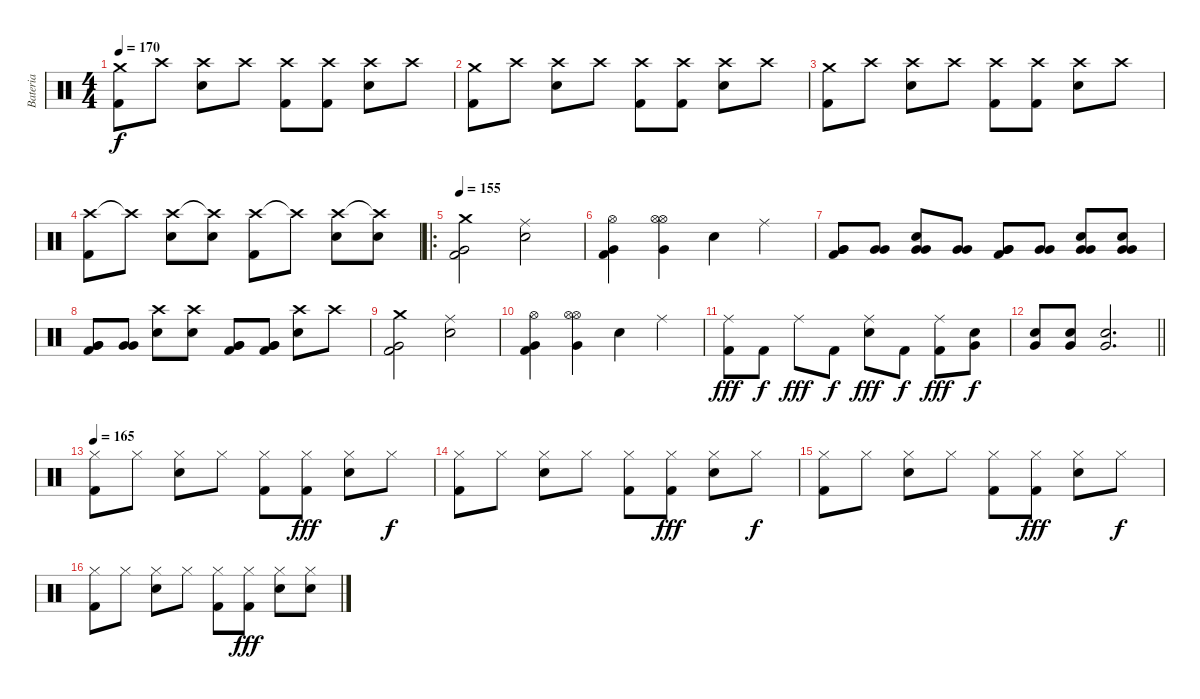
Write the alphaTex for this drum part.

\track ("Bateria" "Bateria") {instrument percussion}
\staff {score}
\articulation defaults
\ts (4 4)
\tempo 170
\clef neutral
\ks c
("Crash medium (hit)" "Kick (hit) 2").8{dy f} "Crash high (hit)".8 ("Crash high (hit)" "Electric Snare (hit)").8 "Crash high (hit)".8 ("Crash high (hit)" "Kick (hit) 2").8 ("Crash high (hit)" "Kick (hit) 2").8 ("Crash high (hit)" "Electric Snare (hit)").8 "Crash high (hit)".8 |
("Crash medium (hit)" "Kick (hit) 2").8 "Crash high (hit)".8 ("Crash high (hit)" "Electric Snare (hit)").8 "Crash high (hit)".8 ("Crash high (hit)" "Kick (hit) 2").8 ("Crash high (hit)" "Kick (hit) 2").8 ("Crash high (hit)" "Electric Snare (hit)").8 "Crash high (hit)".8 |
("Crash medium (hit)" "Kick (hit) 2").8 "Crash high (hit)".8 ("Crash high (hit)" "Electric Snare (hit)").8 "Crash high (hit)".8 ("Crash high (hit)" "Kick (hit) 2").8 ("Crash high (hit)" "Kick (hit) 2").8 ("Crash high (hit)" "Electric Snare (hit)").8 "Crash high (hit)".8 |
("Crash high (hit)" "Kick (hit) 2").8 "Crash high (hit)"{t}.8 ("Crash high (hit)" "Electric Snare (hit)").8 ("Crash high (hit)"{t} "Electric Snare (hit)").8 ("Crash high (hit)" "Kick (hit) 2").8 "Crash high (hit)"{t}.8 ("Crash high (hit)" "Electric Snare (hit)").8 ("Crash high (hit)"{t} "Electric Snare (hit)").8 |
\ro
\tempo 155
("Crash medium (hit)" "Very Low Tom (hit)" "Kick (hit) 2").2 ("Ride (middle)" "Electric Snare (hit)").2 |
("Hi-Hat (open)" "Very Low Tom (hit)" "Kick (hit) 2").4 ("Hi-Hat (open)" "Very Low Tom (hit)" "Hi-Hat (open)").4 "Electric Snare (hit)".4 "Ride (middle)".4 |
("Very Low Tom (hit)" "Very Low Tom (hit)" "Kick (hit) 2").8 ("Very Low Tom (hit)" "Very Low Tom (hit)").8 ("Very Low Tom (hit)" "Very Low Tom (hit)" "Electric Snare (hit)").8 ("Very Low Tom (hit)" "Very Low Tom (hit)").8 ("Very Low Tom (hit)" "Very Low Tom (hit)" "Kick (hit) 2").8 ("Very Low Tom (hit)" "Very Low Tom (hit)").8 ("Very Low Tom (hit)" "Very Low Tom (hit)" "Electric Snare (hit)").8 ("Very Low Tom (hit)" "Very Low Tom (hit)" "Electric Snare (hit)").8 |
("Very Low Tom (hit)" "Very Low Tom (hit)" "Kick (hit) 2").8 ("Very Low Tom (hit)" "Very Low Tom (hit)").8 ("Crash high (hit)" "Electric Snare (hit)").8 ("Crash high (hit)" "Electric Snare (hit)").8 ("Very Low Tom (hit)" "Very Low Tom (hit)" "Kick (hit) 2").8 ("Very Low Tom (hit)" "Very Low Tom (hit)" "Kick (hit) 2").8 ("Crash high (hit)" "Electric Snare (hit)").8 "Crash high (hit)".8 |
("Crash medium (hit)" "Very Low Tom (hit)" "Kick (hit) 2").2 ("Ride (middle)" "Electric Snare (hit)").2 |
("Hi-Hat (open)" "Very Low Tom (hit)" "Kick (hit) 2").4 ("Hi-Hat (open)" "Very Low Tom (hit)" "Hi-Hat (open)").4 "Electric Snare (hit)".4 "Ride (middle)".4 |
("Ride (middle)" "Kick (hit) 2").8{dy fff} "Kick (hit) 2".8{dy f} "Ride (middle)".8{dy fff} "Kick (hit) 2".8{dy f} ("Ride (middle)" "Electric Snare (hit)").8{dy fff} "Kick (hit) 2".8{dy f} ("Ride (middle)" "Kick (hit) 2").8{dy fff} ("Very Low Tom (hit)" "Electric Snare (hit)").8{dy f} |
\barLineRight lightlight
("Very Low Tom (hit)" "Electric Snare (hit)").8 ("Very Low Tom (hit)" "Electric Snare (hit)").8 ("Very Low Tom (hit)" "Electric Snare (hit)").2{d} |
\tempo 165
("Hi-Hat (closed)" "Kick (hit) 2").8 "Hi-Hat (closed)".8 ("Hi-Hat (closed)" "Electric Snare (hit)").8 "Hi-Hat (closed)".8 ("Hi-Hat (closed)" "Kick (hit) 2").8 ("Hi-Hat (closed)" "Kick (hit) 2").8{dy fff} ("Hi-Hat (closed)" "Electric Snare (hit)").8 "Hi-Hat (closed)".8{dy f} |
("Hi-Hat (closed)" "Kick (hit) 2").8 "Hi-Hat (closed)".8 ("Hi-Hat (closed)" "Electric Snare (hit)").8 "Hi-Hat (closed)".8 ("Hi-Hat (closed)" "Kick (hit) 2").8 ("Hi-Hat (closed)" "Kick (hit) 2").8{dy fff} ("Hi-Hat (closed)" "Electric Snare (hit)").8 "Hi-Hat (closed)".8{dy f} |
("Hi-Hat (closed)" "Kick (hit) 2").8 "Hi-Hat (closed)".8 ("Hi-Hat (closed)" "Electric Snare (hit)").8 "Hi-Hat (closed)".8 ("Hi-Hat (closed)" "Kick (hit) 2").8 ("Hi-Hat (closed)" "Kick (hit) 2").8{dy fff} ("Hi-Hat (closed)" "Electric Snare (hit)").8 "Hi-Hat (closed)".8{dy f} |
("Hi-Hat (closed)" "Kick (hit) 2").8 "Hi-Hat (closed)".8 ("Hi-Hat (closed)" "Electric Snare (hit)").8 "Hi-Hat (closed)".8 ("Hi-Hat (closed)" "Kick (hit) 2").8 ("Hi-Hat (closed)" "Kick (hit) 2").8{dy fff} ("Hi-Hat (closed)" "Electric Snare (hit)").8 ("Hi-Hat (closed)" "Electric Snare (hit)").8
